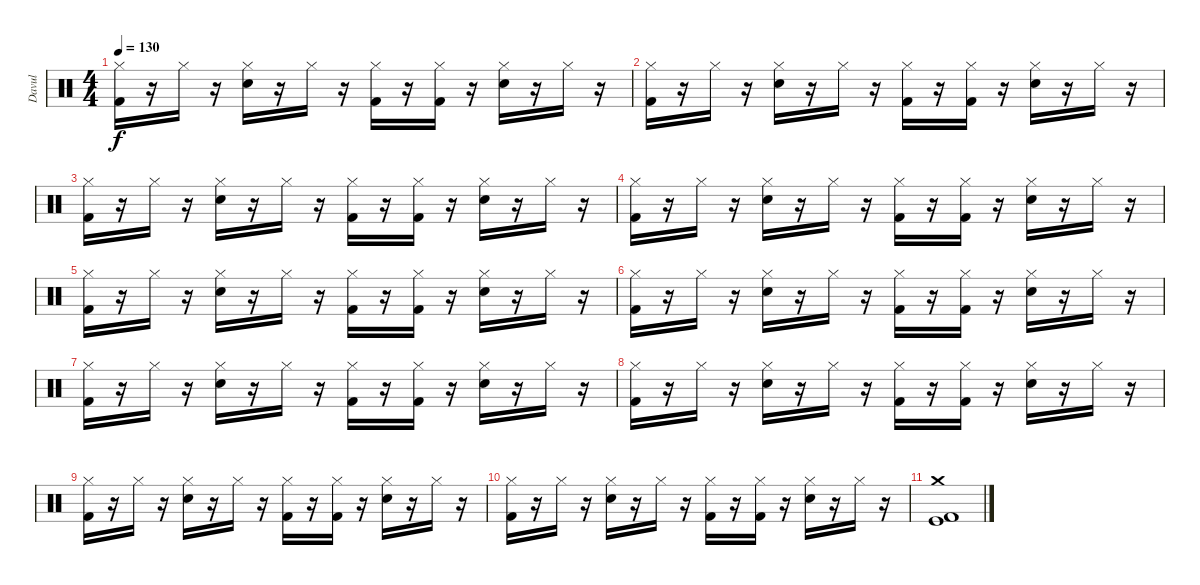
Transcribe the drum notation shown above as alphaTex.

\track ("Davul" "Davul") {instrument percussion}
\staff {score}
\articulation defaults
\ts (4 4)
\tempo 130
\clef neutral
\ks c
("Hi-Hat (closed)" "Kick (hit) 2").16{dy f} r.16 "Hi-Hat (closed)".16 r.16 ("Hi-Hat (closed)" "Snare (hit) 2").16 r.16 "Hi-Hat (closed)".16 r.16 ("Hi-Hat (closed)" "Kick (hit) 2").16 r.16 ("Hi-Hat (closed)" "Kick (hit) 2").16 r.16 ("Hi-Hat (closed)" "Snare (hit) 2").16 r.16 "Hi-Hat (closed)".16 r.16 |
("Hi-Hat (closed)" "Kick (hit) 2").16 r.16 "Hi-Hat (closed)".16 r.16 ("Hi-Hat (closed)" "Snare (hit) 2").16 r.16 "Hi-Hat (closed)".16 r.16 ("Hi-Hat (closed)" "Kick (hit) 2").16 r.16 ("Hi-Hat (closed)" "Kick (hit) 2").16 r.16 ("Hi-Hat (closed)" "Snare (hit) 2").16 r.16 "Hi-Hat (closed)".16 r.16 |
("Hi-Hat (closed)" "Kick (hit) 2").16 r.16 "Hi-Hat (closed)".16 r.16 ("Hi-Hat (closed)" "Snare (hit) 2").16 r.16 "Hi-Hat (closed)".16 r.16 ("Hi-Hat (closed)" "Kick (hit) 2").16 r.16 ("Hi-Hat (closed)" "Kick (hit) 2").16 r.16 ("Hi-Hat (closed)" "Snare (hit) 2").16 r.16 "Hi-Hat (closed)".16 r.16 |
("Hi-Hat (closed)" "Kick (hit) 2").16 r.16 "Hi-Hat (closed)".16 r.16 ("Hi-Hat (closed)" "Snare (hit) 2").16 r.16 "Hi-Hat (closed)".16 r.16 ("Hi-Hat (closed)" "Kick (hit) 2").16 r.16 ("Hi-Hat (closed)" "Kick (hit) 2").16 r.16 ("Hi-Hat (closed)" "Snare (hit) 2").16 r.16 "Hi-Hat (closed)".16 r.16 |
("Hi-Hat (closed)" "Kick (hit) 2").16 r.16 "Hi-Hat (closed)".16 r.16 ("Hi-Hat (closed)" "Snare (hit) 2").16 r.16 "Hi-Hat (closed)".16 r.16 ("Hi-Hat (closed)" "Kick (hit) 2").16 r.16 ("Hi-Hat (closed)" "Kick (hit) 2").16 r.16 ("Hi-Hat (closed)" "Snare (hit) 2").16 r.16 "Hi-Hat (closed)".16 r.16 |
("Hi-Hat (closed)" "Kick (hit) 2").16 r.16 "Hi-Hat (closed)".16 r.16 ("Hi-Hat (closed)" "Snare (hit) 2").16 r.16 "Hi-Hat (closed)".16 r.16 ("Hi-Hat (closed)" "Kick (hit) 2").16 r.16 ("Hi-Hat (closed)" "Kick (hit) 2").16 r.16 ("Hi-Hat (closed)" "Snare (hit) 2").16 r.16 "Hi-Hat (closed)".16 r.16 |
("Hi-Hat (closed)" "Kick (hit) 2").16 r.16 "Hi-Hat (closed)".16 r.16 ("Hi-Hat (closed)" "Snare (hit) 2").16 r.16 "Hi-Hat (closed)".16 r.16 ("Hi-Hat (closed)" "Kick (hit) 2").16 r.16 ("Hi-Hat (closed)" "Kick (hit) 2").16 r.16 ("Hi-Hat (closed)" "Snare (hit) 2").16 r.16 "Hi-Hat (closed)".16 r.16 |
("Hi-Hat (closed)" "Kick (hit) 2").16 r.16 "Hi-Hat (closed)".16 r.16 ("Hi-Hat (closed)" "Snare (hit) 2").16 r.16 "Hi-Hat (closed)".16 r.16 ("Hi-Hat (closed)" "Kick (hit) 2").16 r.16 ("Hi-Hat (closed)" "Kick (hit) 2").16 r.16 ("Hi-Hat (closed)" "Snare (hit) 2").16 r.16 "Hi-Hat (closed)".16 r.16 |
("Hi-Hat (closed)" "Kick (hit) 2").16 r.16 "Hi-Hat (closed)".16 r.16 ("Hi-Hat (closed)" "Snare (hit) 2").16 r.16 "Hi-Hat (closed)".16 r.16 ("Hi-Hat (closed)" "Kick (hit) 2").16 r.16 ("Hi-Hat (closed)" "Kick (hit) 2").16 r.16 ("Hi-Hat (closed)" "Snare (hit) 2").16 r.16 "Hi-Hat (closed)".16 r.16 |
("Hi-Hat (closed)" "Kick (hit) 2").16 r.16 "Hi-Hat (closed)".16 r.16 ("Hi-Hat (closed)" "Snare (hit) 2").16 r.16 "Hi-Hat (closed)".16 r.16 ("Hi-Hat (closed)" "Kick (hit) 2").16 r.16 ("Hi-Hat (closed)" "Kick (hit) 2").16 r.16 ("Hi-Hat (closed)" "Snare (hit) 2").16 r.16 "Hi-Hat (closed)".16 r.16 |
("Crash medium (hit)" "Kick (hit)" "Kick (hit) 2").1
